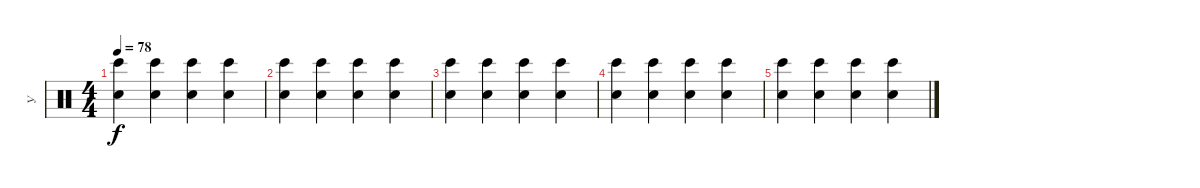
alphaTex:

\track ("У" "У") {instrument percussion}
\staff {score}
\articulation defaults
\ts (4 4)
\tempo 78
\clef neutral
\ks c
("Bongo High (hit)" "Hand Clap (hit)").4{dy f} ("Bongo High (hit)" "Hand Clap (hit)").4 ("Bongo High (hit)" "Hand Clap (hit)").4 ("Bongo High (hit)" "Hand Clap (hit)").4 |
("Bongo High (hit)" "Hand Clap (hit)").4 ("Bongo High (hit)" "Hand Clap (hit)").4 ("Bongo High (hit)" "Hand Clap (hit)").4 ("Bongo High (hit)" "Hand Clap (hit)").4 |
("Bongo High (hit)" "Hand Clap (hit)").4 ("Bongo High (hit)" "Hand Clap (hit)").4 ("Bongo High (hit)" "Hand Clap (hit)").4 ("Bongo High (hit)" "Hand Clap (hit)").4 |
("Bongo High (hit)" "Hand Clap (hit)").4 ("Bongo High (hit)" "Hand Clap (hit)").4 ("Bongo High (hit)" "Hand Clap (hit)").4 ("Bongo High (hit)" "Hand Clap (hit)").4 |
("Bongo High (hit)" "Hand Clap (hit)").4 ("Bongo High (hit)" "Hand Clap (hit)").4 ("Bongo High (hit)" "Hand Clap (hit)").4 ("Bongo High (hit)" "Hand Clap (hit)").4
